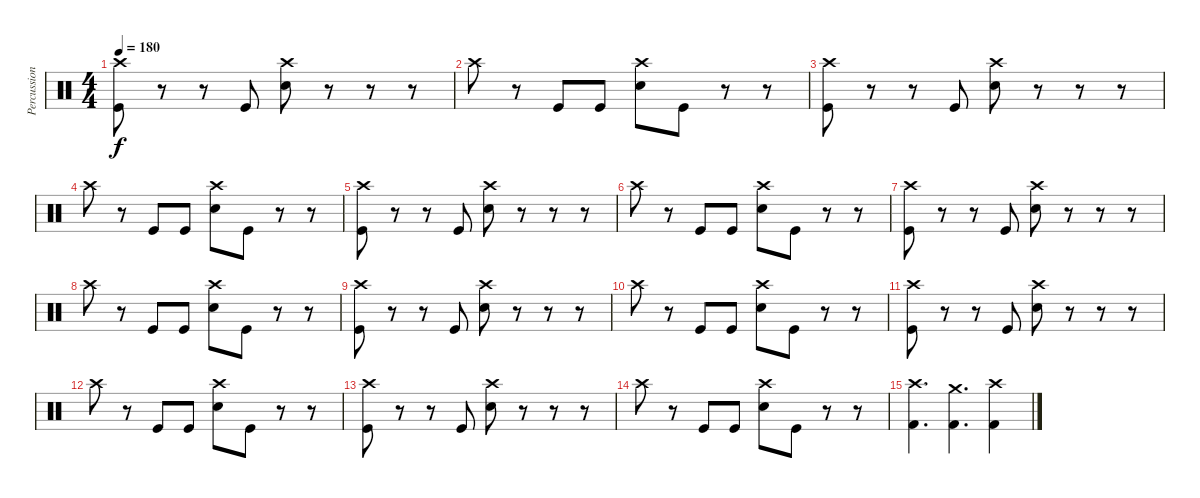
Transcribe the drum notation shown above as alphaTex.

\track ("Percussion" "Percussion") {instrument percussion}
\staff {score}
\articulation defaults
\ts (4 4)
\tempo 180
\clef neutral
\ks c
("Crash high (hit)" "Kick (hit)").8{dy f} r.8 r.8 "Kick (hit)".8 ("Crash high (hit)" "Snare (hit) 2").8 r.8 r.8 r.8 |
"Crash high (hit)".8 r.8 "Kick (hit)".8 "Kick (hit)".8 ("Crash high (hit)" "Snare (hit) 2").8 "Kick (hit)".8 r.8 r.8 |
("Crash high (hit)" "Kick (hit)").8 r.8 r.8 "Kick (hit)".8 ("Crash high (hit)" "Snare (hit) 2").8 r.8 r.8 r.8 |
"Crash high (hit)".8 r.8 "Kick (hit)".8 "Kick (hit)".8 ("Crash high (hit)" "Snare (hit) 2").8 "Kick (hit)".8 r.8 r.8 |
("Crash high (hit)" "Kick (hit)").8 r.8 r.8 "Kick (hit)".8 ("Crash high (hit)" "Snare (hit) 2").8 r.8 r.8 r.8 |
"Crash high (hit)".8 r.8 "Kick (hit)".8 "Kick (hit)".8 ("Crash high (hit)" "Snare (hit) 2").8 "Kick (hit)".8 r.8 r.8 |
("Crash high (hit)" "Kick (hit)").8 r.8 r.8 "Kick (hit)".8 ("Crash high (hit)" "Snare (hit) 2").8 r.8 r.8 r.8 |
"Crash high (hit)".8 r.8 "Kick (hit)".8 "Kick (hit)".8 ("Crash high (hit)" "Snare (hit) 2").8 "Kick (hit)".8 r.8 r.8 |
("Crash high (hit)" "Kick (hit)").8 r.8 r.8 "Kick (hit)".8 ("Crash high (hit)" "Snare (hit) 2").8 r.8 r.8 r.8 |
"Crash high (hit)".8 r.8 "Kick (hit)".8 "Kick (hit)".8 ("Crash high (hit)" "Snare (hit) 2").8 "Kick (hit)".8 r.8 r.8 |
("Crash high (hit)" "Kick (hit)").8 r.8 r.8 "Kick (hit)".8 ("Crash high (hit)" "Snare (hit) 2").8 r.8 r.8 r.8 |
"Crash high (hit)".8 r.8 "Kick (hit)".8 "Kick (hit)".8 ("Crash high (hit)" "Snare (hit) 2").8 "Kick (hit)".8 r.8 r.8 |
("Crash high (hit)" "Kick (hit)").8 r.8 r.8 "Kick (hit)".8 ("Crash high (hit)" "Snare (hit) 2").8 r.8 r.8 r.8 |
"Crash high (hit)".8 r.8 "Kick (hit)".8 "Kick (hit)".8 ("Crash high (hit)" "Snare (hit) 2").8 "Kick (hit)".8 r.8 r.8 |
("Crash high (hit)" "Kick (hit) 2").4{d} ("Crash medium (hit)" "Kick (hit) 2").4{d} ("Crash high (hit)" "Kick (hit) 2").4
